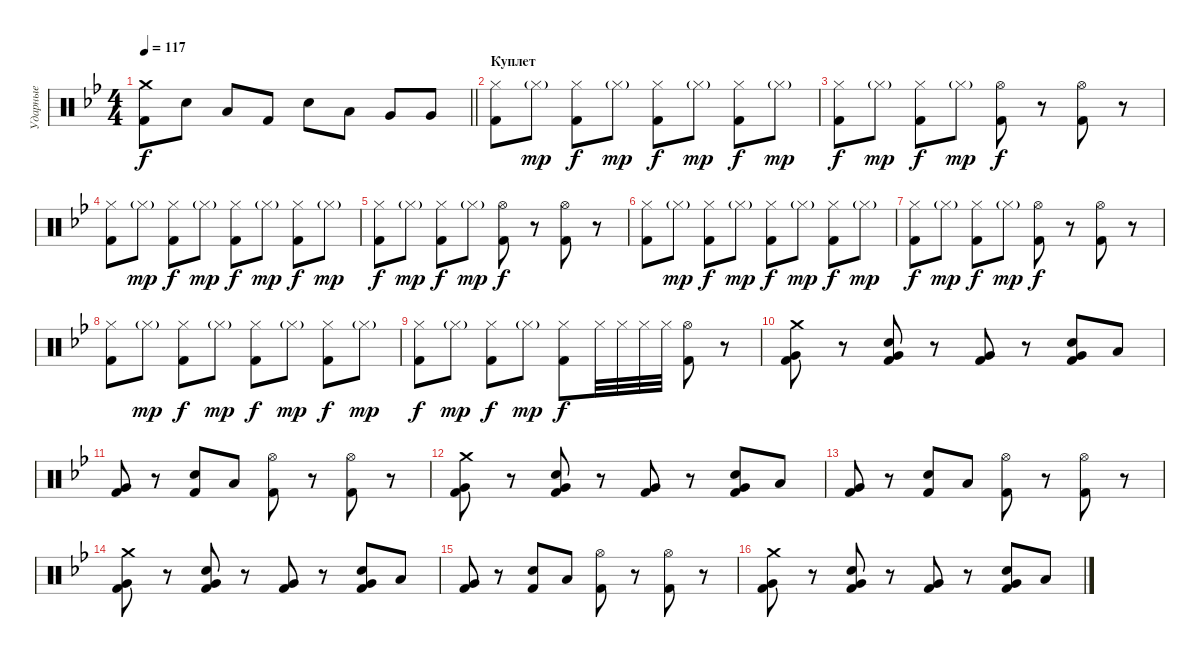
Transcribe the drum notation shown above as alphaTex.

\track ("Ударные" "Ударные") {instrument percussion}
\staff {score}
\articulation defaults
\ts (4 4)
\tempo 117
\clef neutral
\barLineRight lightlight
\ks gminor
("Crash medium (hit)" "Kick (hit) 2").8{dy f} "Electric Snare (hit)".8 "Low Tom (hit)".8 "Kick (hit) 2".8 "Electric Snare (hit)".8 "Low Tom (hit)".8 "Very Low Tom (hit)".8 "Very Low Tom (hit)".8 |
\section ("" "Куплет")
("Hi-Hat (closed)" "Kick (hit) 2").8 "Hi-Hat (closed)"{g}.8{dy mp} ("Hi-Hat (closed)" "Kick (hit) 2").8{dy f} "Hi-Hat (closed)"{g}.8{dy mp} ("Hi-Hat (closed)" "Kick (hit) 2").8{dy f} "Hi-Hat (closed)"{g}.8{dy mp} ("Hi-Hat (closed)" "Kick (hit) 2").8{dy f} "Hi-Hat (closed)"{g}.8{dy mp} |
("Hi-Hat (closed)" "Kick (hit) 2").8{dy f} "Hi-Hat (closed)"{g}.8{dy mp} ("Hi-Hat (closed)" "Kick (hit) 2").8{dy f} "Hi-Hat (closed)"{g}.8{dy mp} ("Hi-Hat (open)" "Kick (hit) 2").8{dy f} r.8 ("Hi-Hat (open)" "Kick (hit) 2").8 r.8 |
("Hi-Hat (closed)" "Kick (hit) 2").8 "Hi-Hat (closed)"{g}.8{dy mp} ("Hi-Hat (closed)" "Kick (hit) 2").8{dy f} "Hi-Hat (closed)"{g}.8{dy mp} ("Hi-Hat (closed)" "Kick (hit) 2").8{dy f} "Hi-Hat (closed)"{g}.8{dy mp} ("Hi-Hat (closed)" "Kick (hit) 2").8{dy f} "Hi-Hat (closed)"{g}.8{dy mp} |
("Hi-Hat (closed)" "Kick (hit) 2").8{dy f} "Hi-Hat (closed)"{g}.8{dy mp} ("Hi-Hat (closed)" "Kick (hit) 2").8{dy f} "Hi-Hat (closed)"{g}.8{dy mp} ("Hi-Hat (open)" "Kick (hit) 2").8{dy f} r.8 ("Hi-Hat (open)" "Kick (hit) 2").8 r.8 |
("Hi-Hat (closed)" "Kick (hit) 2").8 "Hi-Hat (closed)"{g}.8{dy mp} ("Hi-Hat (closed)" "Kick (hit) 2").8{dy f} "Hi-Hat (closed)"{g}.8{dy mp} ("Hi-Hat (closed)" "Kick (hit) 2").8{dy f} "Hi-Hat (closed)"{g}.8{dy mp} ("Hi-Hat (closed)" "Kick (hit) 2").8{dy f} "Hi-Hat (closed)"{g}.8{dy mp} |
("Hi-Hat (closed)" "Kick (hit) 2").8{dy f} "Hi-Hat (closed)"{g}.8{dy mp} ("Hi-Hat (closed)" "Kick (hit) 2").8{dy f} "Hi-Hat (closed)"{g}.8{dy mp} ("Hi-Hat (open)" "Kick (hit) 2").8{dy f} r.8 ("Hi-Hat (open)" "Kick (hit) 2").8 r.8 |
("Hi-Hat (closed)" "Kick (hit) 2").8 "Hi-Hat (closed)"{g}.8{dy mp} ("Hi-Hat (closed)" "Kick (hit) 2").8{dy f} "Hi-Hat (closed)"{g}.8{dy mp} ("Hi-Hat (closed)" "Kick (hit) 2").8{dy f} "Hi-Hat (closed)"{g}.8{dy mp} ("Hi-Hat (closed)" "Kick (hit) 2").8{dy f} "Hi-Hat (closed)"{g}.8{dy mp} |
("Hi-Hat (closed)" "Kick (hit) 2").8{dy f} "Hi-Hat (closed)"{g}.8{dy mp} ("Hi-Hat (closed)" "Kick (hit) 2").8{dy f} "Hi-Hat (closed)"{g}.8{dy mp} ("Hi-Hat (closed)" "Kick (hit) 2").8{dy f} "Hi-Hat (closed)".32 "Hi-Hat (closed)".32 "Hi-Hat (closed)".32 "Hi-Hat (closed)".32 ("Hi-Hat (open)" "Kick (hit) 2").8 r.8 |
("Crash medium (hit)" "Very Low Tom (hit)" "Kick (hit) 2").8 r.8 ("Very Low Tom (hit)" "Electric Snare (hit)" "Kick (hit) 2").8 r.8 ("Very Low Tom (hit)" "Kick (hit) 2").8 r.8 ("Very Low Tom (hit)" "Electric Snare (hit)" "Kick (hit) 2").8 "Low Tom (hit)".8 |
("Very Low Tom (hit)" "Kick (hit) 2").8 r.8 ("Electric Snare (hit)" "Kick (hit) 2").8 "Low Tom (hit)".8 ("Hi-Hat (open)" "Kick (hit) 2").8 r.8 ("Hi-Hat (open)" "Kick (hit) 2").8 r.8 |
("Crash medium (hit)" "Very Low Tom (hit)" "Kick (hit) 2").8 r.8 ("Very Low Tom (hit)" "Electric Snare (hit)" "Kick (hit) 2").8 r.8 ("Very Low Tom (hit)" "Kick (hit) 2").8 r.8 ("Very Low Tom (hit)" "Electric Snare (hit)" "Kick (hit) 2").8 "Low Tom (hit)".8 |
("Very Low Tom (hit)" "Kick (hit) 2").8 r.8 ("Electric Snare (hit)" "Kick (hit) 2").8 "Low Tom (hit)".8 ("Hi-Hat (open)" "Kick (hit) 2").8 r.8 ("Hi-Hat (open)" "Kick (hit) 2").8 r.8 |
("Crash medium (hit)" "Very Low Tom (hit)" "Kick (hit) 2").8 r.8 ("Very Low Tom (hit)" "Electric Snare (hit)" "Kick (hit) 2").8 r.8 ("Very Low Tom (hit)" "Kick (hit) 2").8 r.8 ("Very Low Tom (hit)" "Electric Snare (hit)" "Kick (hit) 2").8 "Low Tom (hit)".8 |
("Very Low Tom (hit)" "Kick (hit) 2").8 r.8 ("Electric Snare (hit)" "Kick (hit) 2").8 "Low Tom (hit)".8 ("Hi-Hat (open)" "Kick (hit) 2").8 r.8 ("Hi-Hat (open)" "Kick (hit) 2").8 r.8 |
("Crash medium (hit)" "Very Low Tom (hit)" "Kick (hit) 2").8 r.8 ("Very Low Tom (hit)" "Electric Snare (hit)" "Kick (hit) 2").8 r.8 ("Very Low Tom (hit)" "Kick (hit) 2").8 r.8 ("Very Low Tom (hit)" "Electric Snare (hit)" "Kick (hit) 2").8 "Low Tom (hit)".8
